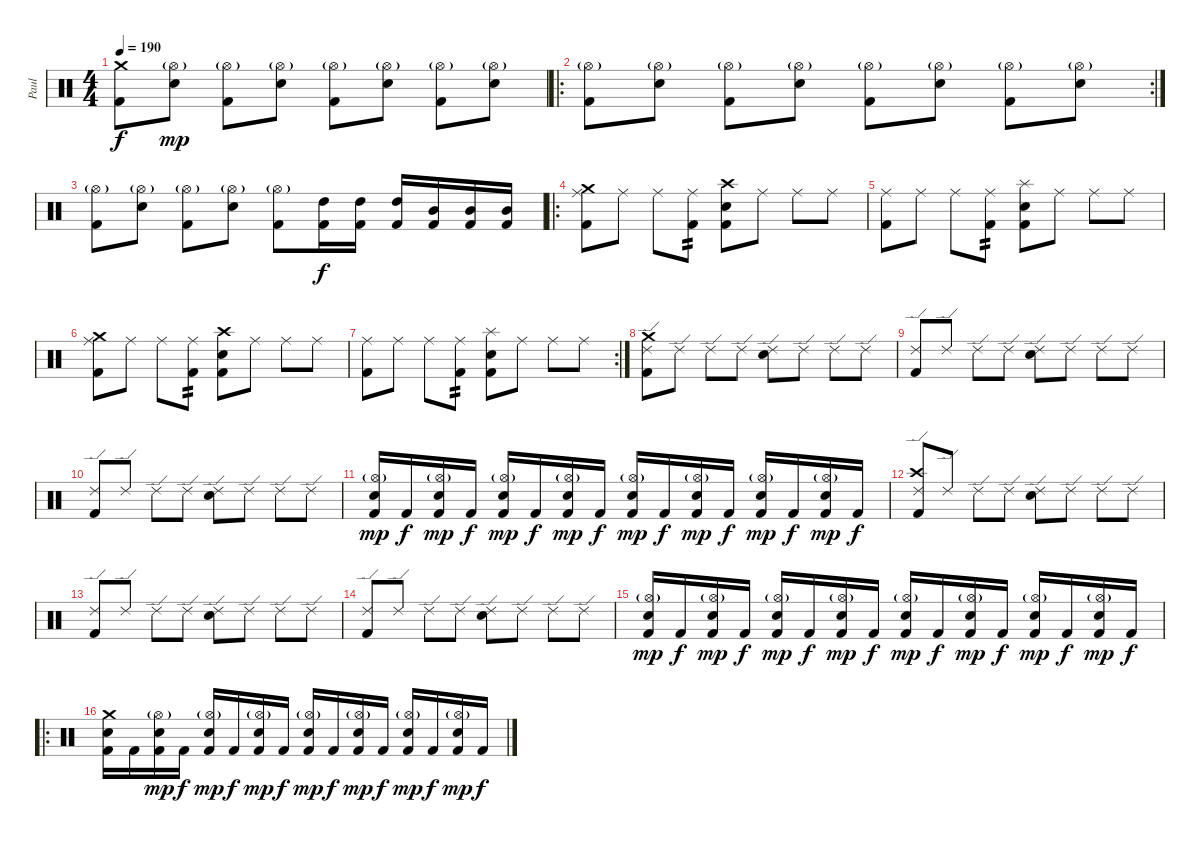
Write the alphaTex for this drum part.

\track ("Paul" "Paul") {instrument percussion}
\staff {score}
\articulation defaults
\ts (4 4)
\tempo 190
\clef neutral
\ks c
("Crash medium (hit)" "Kick (hit) 2").8{dy f} ("Hi-Hat (open)"{g} "Electric Snare (hit)").8{dy mp} ("Hi-Hat (open)"{g} "Kick (hit) 2").8 ("Hi-Hat (open)"{g} "Electric Snare (hit)").8 ("Hi-Hat (open)"{g} "Kick (hit) 2").8 ("Hi-Hat (open)"{g} "Electric Snare (hit)").8 ("Hi-Hat (open)"{g} "Kick (hit) 2").8 ("Hi-Hat (open)"{g} "Electric Snare (hit)").8 |
\ro
\rc 2
("Hi-Hat (open)"{g} "Kick (hit) 2").8 ("Hi-Hat (open)"{g} "Electric Snare (hit)").8 ("Hi-Hat (open)"{g} "Kick (hit) 2").8 ("Hi-Hat (open)"{g} "Electric Snare (hit)").8 ("Hi-Hat (open)"{g} "Kick (hit) 2").8 ("Hi-Hat (open)"{g} "Electric Snare (hit)").8 ("Hi-Hat (open)"{g} "Kick (hit) 2").8 ("Hi-Hat (open)"{g} "Electric Snare (hit)").8 |
("Hi-Hat (open)"{g} "Kick (hit) 2").8 ("Electric Snare (hit)" "Hi-Hat (open)"{g}).8 ("Hi-Hat (open)"{g} "Kick (hit) 2").8 ("Electric Snare (hit)" "Hi-Hat (open)"{g}).8 ("Hi-Hat (open)"{g} "Kick (hit) 2").8 ("High Tom (hit)" "Kick (hit) 2").16{dy f} ("High Tom (hit)" "Kick (hit) 2").16 ("High Tom (hit)" "Kick (hit) 2").16 ("Mid Tom (hit)" "Kick (hit) 2").16 ("Mid Tom (hit)" "Kick (hit) 2").16 ("Mid Tom (hit)" "Kick (hit) 2").16 |
\ro
("Crash medium (hit)" "Ride (middle)" "Kick (hit) 2").8 "Ride (middle)".8 "Ride (middle)".8 ("Ride (middle)" "Kick (hit) 2").8{tp 2} ("Crash high (hit)" "Electric Snare (hit)" "Kick (hit) 2").8 "Ride (middle)".8 "Ride (middle)".8 "Ride (middle)".8 |
("Ride (middle)" "Kick (hit) 2").8 "Ride (middle)".8 "Ride (middle)".8 ("Ride (middle)" "Kick (hit) 2").8{tp 2} ("Splash (hit)" "Electric Snare (hit)" "Kick (hit) 2").8 "Ride (middle)".8 "Ride (middle)".8 "Ride (middle)".8 |
("Crash medium (hit)" "Ride (middle)" "Kick (hit) 2").8 "Ride (middle)".8 "Ride (middle)".8 ("Ride (middle)" "Kick (hit) 2").8{tp 2} ("Crash high (hit)" "Electric Snare (hit)" "Kick (hit) 2").8 "Ride (middle)".8 "Ride (middle)".8 "Ride (middle)".8 |
\rc 2
("Ride (middle)" "Kick (hit) 2").8 "Ride (middle)".8 "Ride (middle)".8 ("Ride (middle)" "Kick (hit) 2").8{tp 2} ("Splash (hit)" "Electric Snare (hit)" "Kick (hit) 2").8 "Ride (middle)".8 "Ride (middle)".8 "Ride (middle)".8 |
("Crash medium (hit)" "Ride (edge) 2" "Kick (hit) 2").8 "Ride (edge) 2".8 "Ride (edge) 2".8 "Ride (edge) 2".8 ("Electric Snare (hit)" "Ride (edge) 2").8 "Ride (edge) 2".8 "Ride (edge) 2".8 "Ride (edge) 2".8 |
("Ride (edge) 2" "Kick (hit) 2").8 "Ride (edge) 2".8 "Ride (edge) 2".8 "Ride (edge) 2".8 ("Electric Snare (hit)" "Ride (edge) 2").8 "Ride (edge) 2".8 "Ride (edge) 2".8 "Ride (edge) 2".8 |
("Ride (edge) 2" "Kick (hit) 2").8 "Ride (edge) 2".8 "Ride (edge) 2".8 "Ride (edge) 2".8 ("Electric Snare (hit)" "Ride (edge) 2").8 "Ride (edge) 2".8 "Ride (edge) 2".8 "Ride (edge) 2".8 |
("Electric Snare (hit)" "Hi-Hat (open)"{g} "Kick (hit) 2").16{dy mp} "Kick (hit) 2".16{dy f} ("Electric Snare (hit)" "Hi-Hat (open)"{g} "Kick (hit) 2").16{dy mp} "Kick (hit) 2".16{dy f} ("Electric Snare (hit)" "Hi-Hat (open)"{g} "Kick (hit) 2").16{dy mp} "Kick (hit) 2".16{dy f} ("Electric Snare (hit)" "Hi-Hat (open)"{g} "Kick (hit) 2").16{dy mp} "Kick (hit) 2".16{dy f} ("Electric Snare (hit)" "Hi-Hat (open)"{g} "Kick (hit) 2").16{dy mp} "Kick (hit) 2".16{dy f} ("Electric Snare (hit)" "Hi-Hat (open)"{g} "Kick (hit) 2").16{dy mp} "Kick (hit) 2".16{dy f} ("Electric Snare (hit)" "Hi-Hat (open)"{g} "Kick (hit) 2").16{dy mp} "Kick (hit) 2".16{dy f} ("Electric Snare (hit)" "Hi-Hat (open)"{g} "Kick (hit) 2").16{dy mp} "Kick (hit) 2".16{dy f} |
("Crash high (hit)" "Ride (edge) 2" "Kick (hit) 2").8 "Ride (edge) 2".8 "Ride (edge) 2".8 "Ride (edge) 2".8 ("Electric Snare (hit)" "Ride (edge) 2").8 "Ride (edge) 2".8 "Ride (edge) 2".8 "Ride (edge) 2".8 |
("Ride (edge) 2" "Kick (hit) 2").8 "Ride (edge) 2".8 "Ride (edge) 2".8 "Ride (edge) 2".8 ("Electric Snare (hit)" "Ride (edge) 2").8 "Ride (edge) 2".8 "Ride (edge) 2".8 "Ride (edge) 2".8 |
("Ride (edge) 2" "Kick (hit) 2").8 "Ride (edge) 2".8 "Ride (edge) 2".8 "Ride (edge) 2".8 ("Electric Snare (hit)" "Ride (edge) 2").8 "Ride (edge) 2".8 "Ride (edge) 2".8 "Ride (edge) 2".8 |
("Electric Snare (hit)" "Hi-Hat (open)"{g} "Kick (hit) 2").16{dy mp} "Kick (hit) 2".16{dy f} ("Electric Snare (hit)" "Hi-Hat (open)"{g} "Kick (hit) 2").16{dy mp} "Kick (hit) 2".16{dy f} ("Electric Snare (hit)" "Hi-Hat (open)"{g} "Kick (hit) 2").16{dy mp} "Kick (hit) 2".16{dy f} ("Electric Snare (hit)" "Hi-Hat (open)"{g} "Kick (hit) 2").16{dy mp} "Kick (hit) 2".16{dy f} ("Electric Snare (hit)" "Hi-Hat (open)"{g} "Kick (hit) 2").16{dy mp} "Kick (hit) 2".16{dy f} ("Electric Snare (hit)" "Hi-Hat (open)"{g} "Kick (hit) 2").16{dy mp} "Kick (hit) 2".16{dy f} ("Electric Snare (hit)" "Hi-Hat (open)"{g} "Kick (hit) 2").16{dy mp} "Kick (hit) 2".16{dy f} ("Electric Snare (hit)" "Hi-Hat (open)"{g} "Kick (hit) 2").16{dy mp} "Kick (hit) 2".16{dy f} |
\ro
("Electric Snare (hit)" "Crash medium (hit)" "Kick (hit) 2").16 "Kick (hit) 2".16 ("Electric Snare (hit)" "Hi-Hat (open)"{g} "Kick (hit) 2").16{dy mp} "Kick (hit) 2".16{dy f} ("Electric Snare (hit)" "Hi-Hat (open)"{g} "Kick (hit) 2").16{dy mp} "Kick (hit) 2".16{dy f} ("Electric Snare (hit)" "Hi-Hat (open)"{g} "Kick (hit) 2").16{dy mp} "Kick (hit) 2".16{dy f} ("Electric Snare (hit)" "Hi-Hat (open)"{g} "Kick (hit) 2").16{dy mp} "Kick (hit) 2".16{dy f} ("Electric Snare (hit)" "Hi-Hat (open)"{g} "Kick (hit) 2").16{dy mp} "Kick (hit) 2".16{dy f} ("Electric Snare (hit)" "Hi-Hat (open)"{g} "Kick (hit) 2").16{dy mp} "Kick (hit) 2".16{dy f} ("Electric Snare (hit)" "Hi-Hat (open)"{g} "Kick (hit) 2").16{dy mp} "Kick (hit) 2".16{dy f}
